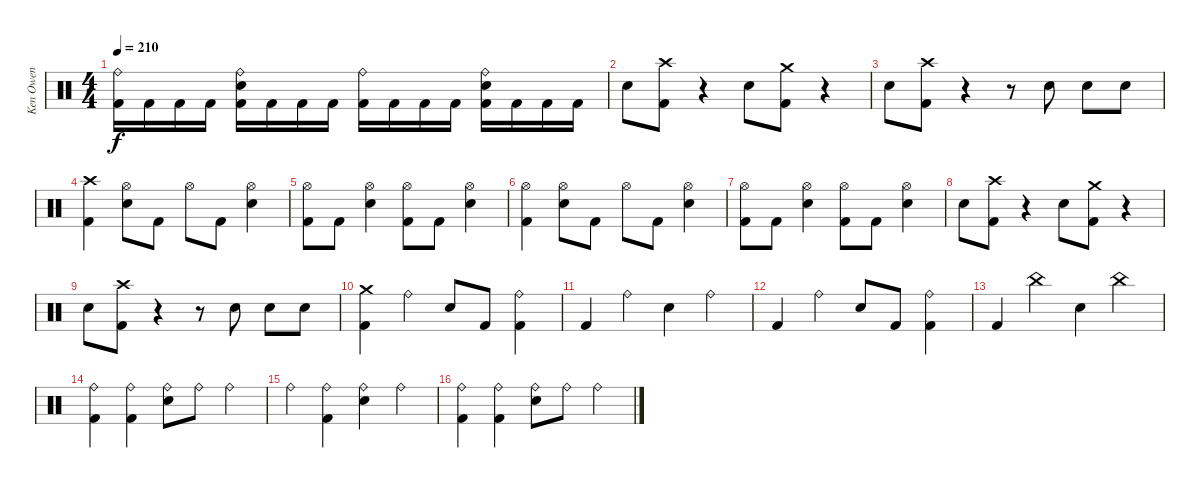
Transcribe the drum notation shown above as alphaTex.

\track ("Ken Owen" "Ken Owen") {instrument percussion}
\staff {score}
\articulation defaults
\ts (4 4)
\tempo 210
\clef neutral
\ks c
("Ride (bell)" "Kick (hit) 2").16{dy f} "Kick (hit) 2".16 "Kick (hit) 2".16 "Kick (hit) 2".16 ("Snare (hit) 2" "Ride (bell)" "Kick (hit) 2").16 "Kick (hit) 2".16 "Kick (hit) 2".16 "Kick (hit) 2".16 ("Ride (bell)" "Kick (hit) 2").16 "Kick (hit) 2".16 "Kick (hit) 2".16 "Kick (hit) 2".16 ("Snare (hit) 2" "Ride (bell)" "Kick (hit) 2").16 "Kick (hit) 2".16 "Kick (hit) 2".16 "Kick (hit) 2".16 |
"Snare (hit) 2".8 ("Crash high (hit)" "Kick (hit) 2").8 r.4 "Snare (hit) 2".8 ("Crash medium (hit)" "Kick (hit) 2").8 r.4 |
"Snare (hit) 2".8 ("Crash high (hit)" "Kick (hit) 2").8 r.4 r.8 "Snare (hit) 2".8 "Snare (hit) 2".8 "Snare (hit) 2".8 |
("Crash high (hit)" "Kick (hit) 2").4 ("Hi-Hat (open)" "Snare (hit) 2").8 "Kick (hit) 2".8 "Hi-Hat (open)".8 "Kick (hit) 2".8 ("Hi-Hat (open)" "Snare (hit) 2").4 |
("Hi-Hat (open)" "Kick (hit) 2").8 "Kick (hit) 2".8 ("Hi-Hat (open)" "Snare (hit) 2").4 ("Hi-Hat (open)" "Kick (hit) 2").8 "Kick (hit) 2".8 ("Hi-Hat (open)" "Snare (hit) 2").4 |
("Hi-Hat (open)" "Kick (hit) 2").4 ("Hi-Hat (open)" "Snare (hit) 2").8 "Kick (hit) 2".8 "Hi-Hat (open)".8 "Kick (hit) 2".8 ("Hi-Hat (open)" "Snare (hit) 2").4 |
("Hi-Hat (open)" "Kick (hit) 2").8 "Kick (hit) 2".8 ("Hi-Hat (open)" "Snare (hit) 2").4 ("Hi-Hat (open)" "Kick (hit) 2").8 "Kick (hit) 2".8 ("Hi-Hat (open)" "Snare (hit) 2").4 |
"Snare (hit) 2".8 ("Crash high (hit)" "Kick (hit) 2").8 r.4 "Snare (hit) 2".8 ("Crash medium (hit)" "Kick (hit) 2").8 r.4 |
"Snare (hit) 2".8 ("Crash high (hit)" "Kick (hit) 2").8 r.4 r.8 "Snare (hit) 2".8 "Snare (hit) 2".8 "Snare (hit) 2".8 |
("Crash medium (hit)" "Kick (hit) 2").4 "Ride (bell)".4 "Snare (hit) 2".8 "Kick (hit) 2".8 ("Ride (bell)" "Kick (hit) 2").4 |
"Kick (hit) 2".4 "Ride (bell)".4 "Snare (hit) 2".4 "Ride (bell)".4 |
"Kick (hit) 2".4 "Ride (bell)".4 "Snare (hit) 2".8 "Kick (hit) 2".8 ("Ride (bell)" "Kick (hit) 2").4 |
"Kick (hit) 2".4 "China (hit)".4 "Snare (hit) 2".4 "China (hit)".4 |
("Ride (bell)" "Kick (hit) 2").4 ("Ride (bell)" "Kick (hit) 2").4 ("Ride (bell)" "Snare (hit) 2").8 "Ride (bell)".8 "Ride (bell)".4 |
"Ride (bell)".4 ("Ride (bell)" "Kick (hit) 2").4 ("Ride (bell)" "Snare (hit) 2").4 "Ride (bell)".4 |
("Ride (bell)" "Kick (hit) 2").4 ("Ride (bell)" "Kick (hit) 2").4 ("Ride (bell)" "Snare (hit) 2").8 "Ride (bell)".8 "Ride (bell)".4
